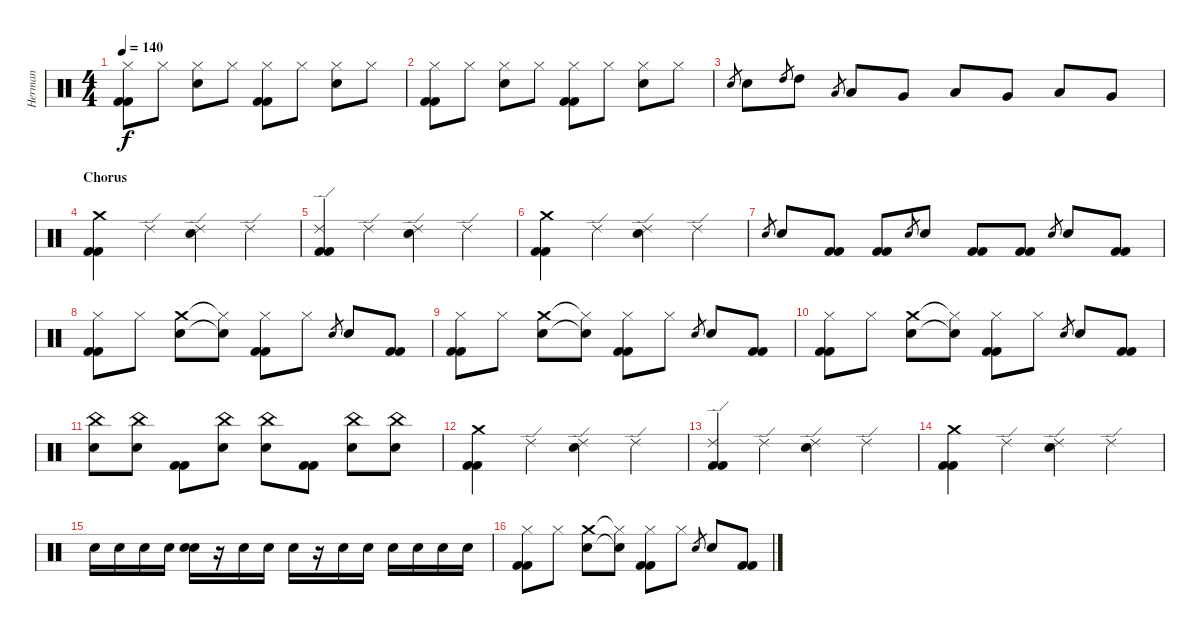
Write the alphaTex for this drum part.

\track ("Herman" "Herman") {instrument percussion}
\staff {score}
\articulation defaults
\ts (4 4)
\tempo 140
\clef neutral
\ks c
("Hi-Hat (closed)" "Kick (hit) 2" "Kick (hit) 2").8{dy f} "Hi-Hat (closed)".8 ("Hi-Hat (closed)" "Electric Snare (hit)").8 "Hi-Hat (closed)".8 ("Kick (hit) 2" "Kick (hit) 2" "Hi-Hat (closed)").8 "Hi-Hat (closed)".8 ("Hi-Hat (closed)" "Electric Snare (hit)").8 "Hi-Hat (closed)".8 |
("Hi-Hat (closed)" "Kick (hit) 2" "Kick (hit) 2").8 "Hi-Hat (closed)".8 ("Hi-Hat (closed)" "Electric Snare (hit)").8 "Hi-Hat (closed)".8 ("Kick (hit) 2" "Kick (hit) 2" "Hi-Hat (closed)").8 "Hi-Hat (closed)".8 ("Hi-Hat (closed)" "Electric Snare (hit)").8 "Hi-Hat (closed)".8 |
"Electric Snare (hit)".8{gr} "Electric Snare (hit)".8 "High Tom (hit)".8{gr} "High Tom (hit)".8 "Low Tom (hit)".8{gr} "Low Tom (hit)".8 "Very Low Tom (hit)".8 "Low Tom (hit)".8 "Very Low Tom (hit)".8 "Low Floor Tom (hit)".8 "Very Low Tom (hit)".8 |
\section ("" "Chorus")
("Crash medium (hit)" "Kick (hit) 2" "Kick (hit) 2").4 "Ride (edge) 2".4 ("Electric Snare (hit)" "Ride (edge) 2").4 "Ride (edge) 2".4 |
("Ride (edge) 2" "Kick (hit) 2" "Kick (hit) 2").4 "Ride (edge) 2".4 ("Electric Snare (hit)" "Ride (edge) 2").4 "Ride (edge) 2".4 |
("Crash medium (hit)" "Kick (hit) 2" "Kick (hit) 2").4 "Ride (edge) 2".4 ("Electric Snare (hit)" "Ride (edge) 2").4 "Ride (edge) 2".4 |
"Electric Snare (hit)".8{gr} "Electric Snare (hit)".8 ("Kick (hit) 2" "Kick (hit) 2").8 ("Kick (hit) 2" "Kick (hit) 2").8 "Electric Snare (hit)".8{gr} "Electric Snare (hit)".8 ("Kick (hit) 2" "Kick (hit) 2").8 ("Kick (hit) 2" "Kick (hit) 2").8 "Electric Snare (hit)".8{gr} "Electric Snare (hit)".8 ("Kick (hit) 2" "Kick (hit) 2").8 |
("Hi-Hat (closed)" "Kick (hit) 2" "Kick (hit) 2").8 "Hi-Hat (closed)".8 ("Electric Snare (hit)" "Crash medium (hit)").8 ("Snare (hit)"{t} "Hi-Hat (closed)"{t}).8 ("Hi-Hat (closed)" "Kick (hit) 2" "Kick (hit) 2").8 "Hi-Hat (closed)".8 "Electric Snare (hit)".8{gr} "Electric Snare (hit)".8 ("Kick (hit) 2" "Kick (hit) 2").8 |
("Hi-Hat (closed)" "Kick (hit) 2" "Kick (hit) 2").8 "Hi-Hat (closed)".8 ("Electric Snare (hit)" "Crash medium (hit)").8 ("Snare (hit)"{t} "Hi-Hat (closed)"{t}).8 ("Hi-Hat (closed)" "Kick (hit) 2" "Kick (hit) 2").8 "Hi-Hat (closed)".8 "Electric Snare (hit)".8{gr} "Electric Snare (hit)".8 ("Kick (hit) 2" "Kick (hit) 2").8 |
("Hi-Hat (closed)" "Kick (hit) 2" "Kick (hit) 2").8 "Hi-Hat (closed)".8 ("Electric Snare (hit)" "Crash medium (hit)").8 ("Snare (hit)"{t} "Hi-Hat (closed)"{t}).8 ("Hi-Hat (closed)" "Kick (hit) 2" "Kick (hit) 2").8 "Hi-Hat (closed)".8 "Electric Snare (hit)".8{gr} "Electric Snare (hit)".8 ("Kick (hit) 2" "Kick (hit) 2").8 |
("China (hit)" "Electric Snare (hit)").8 ("China (hit)" "Electric Snare (hit)").8 ("Kick (hit) 2" "Kick (hit) 2").8 ("Electric Snare (hit)" "China (hit)").8 ("China (hit)" "Electric Snare (hit)").8 ("Kick (hit) 2" "Kick (hit) 2").8 ("China (hit)" "Electric Snare (hit)").8 ("Electric Snare (hit)" "China (hit)").8 |
("Crash medium (hit)" "Kick (hit) 2" "Kick (hit) 2").4 "Ride (edge) 2".4 ("Electric Snare (hit)" "Ride (edge) 2").4 "Ride (edge) 2".4 |
("Ride (edge) 2" "Kick (hit) 2" "Kick (hit) 2").4 "Ride (edge) 2".4 ("Electric Snare (hit)" "Ride (edge) 2").4 "Ride (edge) 2".4 |
("Crash medium (hit)" "Kick (hit) 2" "Kick (hit) 2").4 "Ride (edge) 2".4 ("Electric Snare (hit)" "Ride (edge) 2").4 "Ride (edge) 2".4 |
"Electric Snare (hit)".16 "Electric Snare (hit)".16 "Electric Snare (hit)".16 "Electric Snare (hit)".16 ("Electric Snare (hit)" "Electric Snare (hit)").16 r.16 "Electric Snare (hit)".16 "Electric Snare (hit)".16 "Electric Snare (hit)".16 r.16 "Electric Snare (hit)".16 "Electric Snare (hit)".16 "Electric Snare (hit)".16 "Electric Snare (hit)".16 "Electric Snare (hit)".16 "Electric Snare (hit)".16 |
("Hi-Hat (closed)" "Kick (hit) 2" "Kick (hit) 2").8 "Hi-Hat (closed)".8 ("Electric Snare (hit)" "Crash medium (hit)").8 ("Snare (hit)"{t} "Hi-Hat (closed)"{t}).8 ("Hi-Hat (closed)" "Kick (hit) 2" "Kick (hit) 2").8 "Hi-Hat (closed)".8 "Electric Snare (hit)".8{gr} "Electric Snare (hit)".8 ("Kick (hit) 2" "Kick (hit) 2").8
